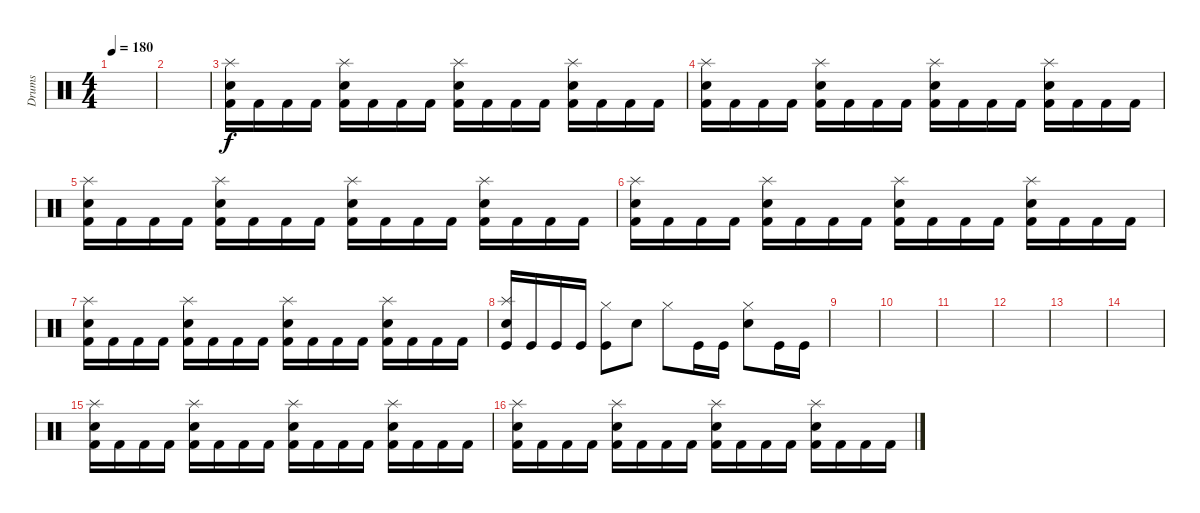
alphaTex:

\track ("Drums" "Drums") {instrument percussion}
\staff {score}
\articulation defaults
\ts (4 4)
\tempo 180
\clef neutral
\ks c
|
|
("Kick (hit) 2" "Snare (hit) 2" "Splash (hit)").16 "Kick (hit) 2".16 "Kick (hit) 2".16 "Kick (hit) 2".16 ("Kick (hit) 2" "Snare (hit) 2" "Splash (hit)").16 "Kick (hit) 2".16 "Kick (hit) 2".16 "Kick (hit) 2".16 ("Kick (hit) 2" "Snare (hit) 2" "Splash (hit)").16 "Kick (hit) 2".16 "Kick (hit) 2".16 "Kick (hit) 2".16 ("Kick (hit) 2" "Snare (hit) 2" "Splash (hit)").16 "Kick (hit) 2".16 "Kick (hit) 2".16 "Kick (hit) 2".16 |
("Kick (hit) 2" "Snare (hit) 2" "Splash (hit)").16 "Kick (hit) 2".16 "Kick (hit) 2".16 "Kick (hit) 2".16 ("Kick (hit) 2" "Snare (hit) 2" "Splash (hit)").16 "Kick (hit) 2".16 "Kick (hit) 2".16 "Kick (hit) 2".16 ("Kick (hit) 2" "Snare (hit) 2" "Splash (hit)").16 "Kick (hit) 2".16 "Kick (hit) 2".16 "Kick (hit) 2".16 ("Kick (hit) 2" "Snare (hit) 2" "Splash (hit)").16 "Kick (hit) 2".16 "Kick (hit) 2".16 "Kick (hit) 2".16 |
("Kick (hit) 2" "Snare (hit) 2" "Splash (hit)").16 "Kick (hit) 2".16 "Kick (hit) 2".16 "Kick (hit) 2".16 ("Kick (hit) 2" "Snare (hit) 2" "Splash (hit)").16 "Kick (hit) 2".16 "Kick (hit) 2".16 "Kick (hit) 2".16 ("Kick (hit) 2" "Snare (hit) 2" "Splash (hit)").16 "Kick (hit) 2".16 "Kick (hit) 2".16 "Kick (hit) 2".16 ("Kick (hit) 2" "Snare (hit) 2" "Splash (hit)").16 "Kick (hit) 2".16 "Kick (hit) 2".16 "Kick (hit) 2".16 |
("Kick (hit) 2" "Snare (hit) 2" "Splash (hit)").16 "Kick (hit) 2".16 "Kick (hit) 2".16 "Kick (hit) 2".16 ("Kick (hit) 2" "Snare (hit) 2" "Splash (hit)").16 "Kick (hit) 2".16 "Kick (hit) 2".16 "Kick (hit) 2".16 ("Kick (hit) 2" "Snare (hit) 2" "Splash (hit)").16 "Kick (hit) 2".16 "Kick (hit) 2".16 "Kick (hit) 2".16 ("Kick (hit) 2" "Snare (hit) 2" "Splash (hit)").16 "Kick (hit) 2".16 "Kick (hit) 2".16 "Kick (hit) 2".16 |
("Kick (hit) 2" "Snare (hit) 2" "Splash (hit)").16 "Kick (hit) 2".16 "Kick (hit) 2".16 "Kick (hit) 2".16 ("Kick (hit) 2" "Snare (hit) 2" "Splash (hit)").16 "Kick (hit) 2".16 "Kick (hit) 2".16 "Kick (hit) 2".16 ("Kick (hit) 2" "Snare (hit) 2" "Splash (hit)").16 "Kick (hit) 2".16 "Kick (hit) 2".16 "Kick (hit) 2".16 ("Kick (hit) 2" "Snare (hit) 2" "Splash (hit)").16 "Kick (hit) 2".16 "Kick (hit) 2".16 "Kick (hit) 2".16 |
("Kick (hit)" "Snare (hit) 2" "Splash (hit)").16 "Kick (hit)".16 "Kick (hit)".16 "Kick (hit)".16 ("Kick (hit)" "Hi-Hat (closed)").8 "Snare (hit) 2".8 "Hi-Hat (closed)".8 "Kick (hit)".16 "Kick (hit)".16 ("Snare (hit) 2" "Hi-Hat (closed)").8 "Kick (hit)".16 "Kick (hit)".16 |
|
|
|
|
|
|
("Kick (hit) 2" "Snare (hit) 2" "Splash (hit)").16 "Kick (hit) 2".16 "Kick (hit) 2".16 "Kick (hit) 2".16 ("Kick (hit) 2" "Snare (hit) 2" "Splash (hit)").16 "Kick (hit) 2".16 "Kick (hit) 2".16 "Kick (hit) 2".16 ("Kick (hit) 2" "Snare (hit) 2" "Splash (hit)").16 "Kick (hit) 2".16 "Kick (hit) 2".16 "Kick (hit) 2".16 ("Kick (hit) 2" "Snare (hit) 2" "Splash (hit)").16 "Kick (hit) 2".16 "Kick (hit) 2".16 "Kick (hit) 2".16 |
("Kick (hit) 2" "Snare (hit) 2" "Splash (hit)").16 "Kick (hit) 2".16 "Kick (hit) 2".16 "Kick (hit) 2".16 ("Kick (hit) 2" "Snare (hit) 2" "Splash (hit)").16 "Kick (hit) 2".16 "Kick (hit) 2".16 "Kick (hit) 2".16 ("Kick (hit) 2" "Snare (hit) 2" "Splash (hit)").16 "Kick (hit) 2".16 "Kick (hit) 2".16 "Kick (hit) 2".16 ("Kick (hit) 2" "Snare (hit) 2" "Splash (hit)").16 "Kick (hit) 2".16 "Kick (hit) 2".16 "Kick (hit) 2".16
